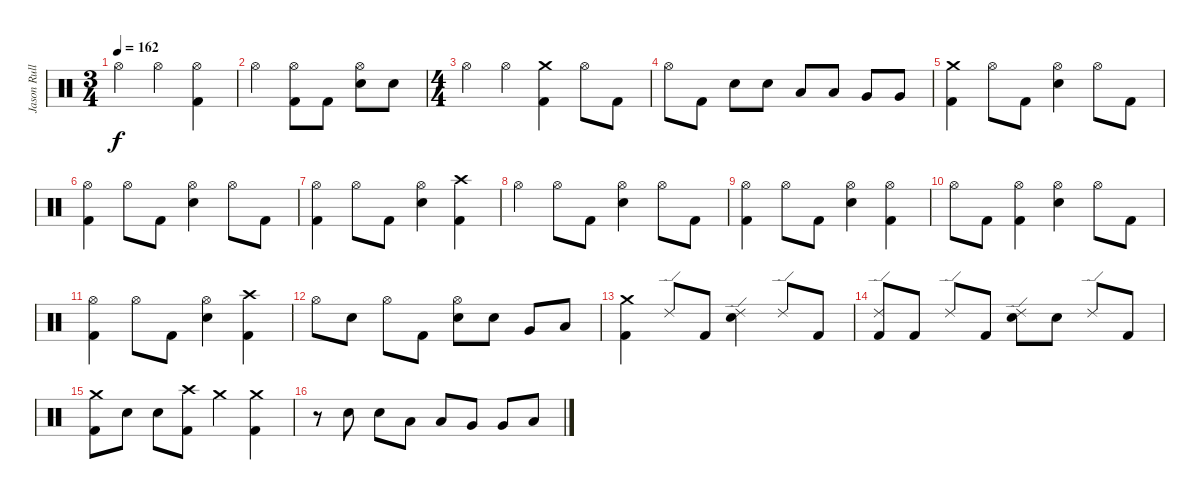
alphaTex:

\track ("Jason Rullo" "Jason Rull") {instrument percussion}
\staff {score}
\articulation defaults
\ts (3 4)
\tempo 162
\clef neutral
\ks c "Hi-Hat (open)".4{dy f} "Hi-Hat (open)".4
("Hi-Hat (open)" "Kick (hit) 2").4 |
"Hi-Hat (open)".4 ("Kick (hit) 2" "Hi-Hat (open)").8 "Kick (hit) 2".8 ("Electric Snare (hit)" "Hi-Hat (open)").8 "Electric Snare (hit)".8 |
\ts (4 4)
"Hi-Hat (open)".4 "Hi-Hat (open)".4 ("Kick (hit) 2" "Crash medium (hit)").4 "Hi-Hat (open)".8 "Kick (hit) 2".8 |
"Hi-Hat (open)".8 "Kick (hit) 2".8 "Electric Snare (hit)".8 "Electric Snare (hit)".8 "Low Tom (hit)".8 "Low Tom (hit)".8 "Very Low Tom (hit)".8 "Very Low Tom (hit)".8 |
("Kick (hit) 2" "Crash medium (hit)").4 "Hi-Hat (open)".8 "Kick (hit) 2".8 ("Electric Snare (hit)" "Hi-Hat (open)").4 "Hi-Hat (open)".8 "Kick (hit) 2".8 |
("Hi-Hat (open)" "Kick (hit) 2").4 "Hi-Hat (open)".8 "Kick (hit) 2".8 ("Electric Snare (hit)" "Hi-Hat (open)").4 "Hi-Hat (open)".8 "Kick (hit) 2".8 |
("Hi-Hat (open)" "Kick (hit) 2").4 "Hi-Hat (open)".8 "Kick (hit) 2".8 ("Electric Snare (hit)" "Hi-Hat (open)").4 ("Crash high (hit)" "Kick (hit) 2").4 |
"Hi-Hat (open)".4 "Hi-Hat (open)".8 "Kick (hit) 2".8 ("Electric Snare (hit)" "Hi-Hat (open)").4 "Hi-Hat (open)".8 "Kick (hit) 2".8 |
("Hi-Hat (open)" "Kick (hit) 2").4 "Hi-Hat (open)".8 "Kick (hit) 2".8 ("Electric Snare (hit)" "Hi-Hat (open)").4 ("Hi-Hat (open)" "Kick (hit) 2").4 |
"Hi-Hat (open)".8 "Kick (hit) 2".8 ("Kick (hit) 2" "Hi-Hat (open)").4 ("Electric Snare (hit)" "Hi-Hat (open)").4 "Hi-Hat (open)".8 "Kick (hit) 2".8 |
("Hi-Hat (open)" "Kick (hit) 2").4 "Hi-Hat (open)".8 "Kick (hit) 2".8 ("Electric Snare (hit)" "Hi-Hat (open)").4 ("Crash high (hit)" "Kick (hit) 2").4 |
"Hi-Hat (open)".8 "Electric Snare (hit)".8 "Hi-Hat (open)".8 "Kick (hit) 2".8 ("Electric Snare (hit)" "Hi-Hat (open)").8 "Electric Snare (hit)".8 "Very Low Tom (hit)".8 "Low Floor Tom (hit)".8 |
("Kick (hit) 2" "Crash medium (hit)").4 "Ride (edge) 2".8 "Kick (hit) 2".8 ("Electric Snare (hit)" "Ride (edge) 2").4 "Ride (edge) 2".8 "Kick (hit) 2".8 |
("Kick (hit) 2" "Ride (edge) 2").8 "Kick (hit) 2".8 "Ride (edge) 2".8 "Kick (hit) 2".8 ("Electric Snare (hit)" "Ride (edge) 2").8 "Electric Snare (hit)".8 "Ride (edge) 2".8 "Kick (hit) 2".8 |
("Crash medium (hit)" "Kick (hit) 2").8 "Electric Snare (hit)".8 "Electric Snare (hit)".8 ("Crash high (hit)" "Kick (hit) 2").8 "Crash medium (hit)".4 ("Crash medium (hit)" "Kick (hit) 2").4 |
r.8 "Electric Snare (hit)".8 "Electric Snare (hit)".8 "Low Tom (hit)".8 "Low Tom (hit)".8 "Very Low Tom (hit)".8 "Very Low Tom (hit)".8 "Low Floor Tom (hit)".8
